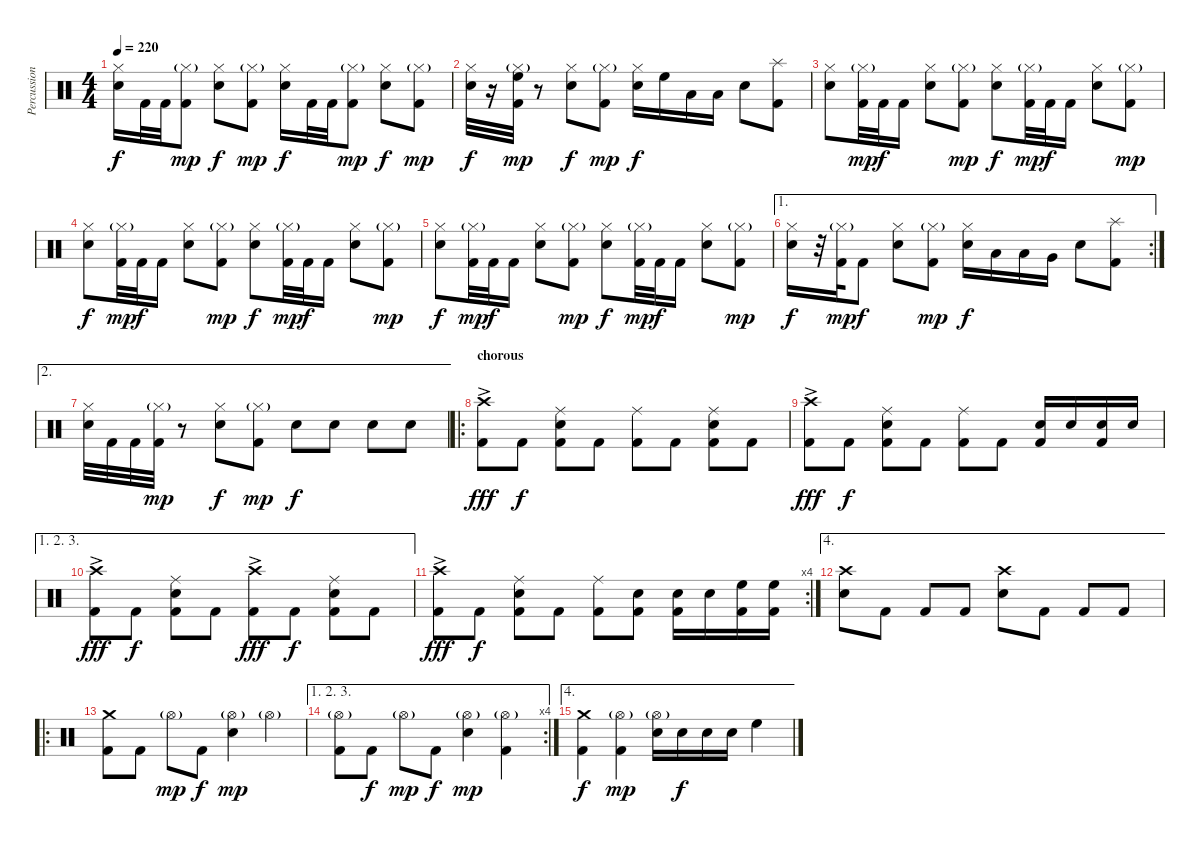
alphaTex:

\track ("Percussion" "Percussion") {instrument percussion}
\staff {score}
\articulation defaults
\ts (4 4)
\tempo 220
\clef neutral
\ks c
("Hi-Hat (closed)" "Electric Snare (hit)").16{dy f} "Kick (hit) 2".32 "Kick (hit) 2".32 ("Hi-Hat (closed)"{g} "Kick (hit) 2").8{dy mp} ("Hi-Hat (closed)" "Electric Snare (hit)").8{dy f} ("Hi-Hat (closed)"{g} "Kick (hit) 2").8{dy mp} ("Hi-Hat (closed)" "Electric Snare (hit)").16{dy f} "Kick (hit) 2".32 "Kick (hit) 2".32 ("Hi-Hat (closed)"{g} "Kick (hit) 2").8{dy mp} ("Hi-Hat (closed)" "Electric Snare (hit)").8{dy f} ("Hi-Hat (closed)"{g} "Kick (hit) 2").8{dy mp} |
("Hi-Hat (closed)" "Electric Snare (hit)").32{dy f} r.16 ("Hi-Hat (closed)"{g} "High Floor Tom (hit)" "Kick (hit) 2").32{dy mp} r.8 ("Hi-Hat (closed)" "Electric Snare (hit)").8{dy f} ("Hi-Hat (closed)"{g} "Kick (hit) 2").8{dy mp} ("Hi-Hat (closed)" "Electric Snare (hit)").16{dy f} "High Floor Tom (hit)".16 "Low Tom (hit)".16 "Low Tom (hit)".16 "Electric Snare (hit)".8 ("Splash (hit)" "Kick (hit) 2").8 |
("Hi-Hat (closed)" "Electric Snare (hit)").8 ("Hi-Hat (closed)"{g} "Kick (hit) 2").32{dy mp} "Kick (hit) 2".32{dy f} "Kick (hit) 2".16 ("Hi-Hat (closed)" "Electric Snare (hit)").8 ("Hi-Hat (closed)"{g} "Kick (hit) 2").8{dy mp} ("Hi-Hat (closed)" "Electric Snare (hit)").8{dy f} ("Hi-Hat (closed)"{g} "Kick (hit) 2").32{dy mp} "Kick (hit) 2".32{dy f} "Kick (hit) 2".16 ("Hi-Hat (closed)" "Electric Snare (hit)").8 ("Hi-Hat (closed)"{g} "Kick (hit) 2").8{dy mp} |
("Hi-Hat (closed)" "Electric Snare (hit)").8{dy f} ("Hi-Hat (closed)"{g} "Kick (hit) 2").32{dy mp} "Kick (hit) 2".32{dy f} "Kick (hit) 2".16 ("Hi-Hat (closed)" "Electric Snare (hit)").8 ("Hi-Hat (closed)"{g} "Kick (hit) 2").8{dy mp} ("Hi-Hat (closed)" "Electric Snare (hit)").8{dy f} ("Hi-Hat (closed)"{g} "Kick (hit) 2").32{dy mp} "Kick (hit) 2".32{dy f} "Kick (hit) 2".16 ("Hi-Hat (closed)" "Electric Snare (hit)").8 ("Hi-Hat (closed)"{g} "Kick (hit) 2").8{dy mp} |
("Hi-Hat (closed)" "Electric Snare (hit)").8{dy f} ("Hi-Hat (closed)"{g} "Kick (hit) 2").32{dy mp} "Kick (hit) 2".32{dy f} "Kick (hit) 2".16 ("Hi-Hat (closed)" "Electric Snare (hit)").8 ("Hi-Hat (closed)"{g} "Kick (hit) 2").8{dy mp} ("Hi-Hat (closed)" "Electric Snare (hit)").8{dy f} ("Hi-Hat (closed)"{g} "Kick (hit) 2").32{dy mp} "Kick (hit) 2".32{dy f} "Kick (hit) 2".16 ("Hi-Hat (closed)" "Electric Snare (hit)").8 ("Hi-Hat (closed)"{g} "Kick (hit) 2").8{dy mp} |
\ae 1
\rc 2
("Hi-Hat (closed)" "Electric Snare (hit)").16{dy f} r.32 ("Hi-Hat (closed)"{g} "Kick (hit) 2").32{dy mp} "Kick (hit) 2".8{dy f} ("Hi-Hat (closed)" "Electric Snare (hit)").8 ("Hi-Hat (closed)"{g} "Kick (hit) 2").8{dy mp} ("Hi-Hat (closed)" "Electric Snare (hit)").16{dy f} "Low Tom (hit)".16 "Low Tom (hit)".16 "Very Low Tom (hit)".16 "Electric Snare (hit)".8 ("Splash (hit)" "Kick (hit) 2").8 |
\ae 2
("Hi-Hat (closed)" "Electric Snare (hit)").32 "Kick (hit) 2".32 "Kick (hit) 2".32 ("Hi-Hat (closed)"{g} "Kick (hit) 2").32{dy mp} r.8 ("Hi-Hat (closed)" "Electric Snare (hit)").8{dy f} ("Hi-Hat (closed)"{g} "Kick (hit) 2").8{dy mp} "Electric Snare (hit)".8{dy f} "Electric Snare (hit)".8 "Electric Snare (hit)".8 "Electric Snare (hit)".8 |
\ro
\section ("" "chorous")
("Crash high (hit)"{ac} "Kick (hit) 2").8{dy fff} "Kick (hit) 2".8{dy f} ("Ride (middle)" "Electric Snare (hit)" "Kick (hit) 2").8 "Kick (hit) 2".8 ("Ride (middle)" "Kick (hit) 2").8 "Kick (hit) 2".8 ("Ride (middle)" "Electric Snare (hit)" "Kick (hit) 2").8 "Kick (hit) 2".8 |
("Crash high (hit)"{ac} "Kick (hit) 2").8{dy fff} "Kick (hit) 2".8{dy f} ("Ride (middle)" "Electric Snare (hit)" "Kick (hit) 2").8 "Kick (hit) 2".8 ("Ride (middle)" "Kick (hit) 2").8 "Kick (hit) 2".8 ("Electric Snare (hit)" "Kick (hit) 2").16 "Electric Snare (hit)".16 ("Electric Snare (hit)" "Kick (hit) 2").16 "Electric Snare (hit)".16 |
\ae (1 2 3)
("Crash high (hit)"{ac} "Kick (hit) 2").8{dy fff} "Kick (hit) 2".8{dy f} ("Ride (middle)" "Electric Snare (hit)" "Kick (hit) 2").8 "Kick (hit) 2".8 ("Crash high (hit)"{ac} "Kick (hit) 2").8{dy fff} "Kick (hit) 2".8{dy f} ("Ride (middle)" "Electric Snare (hit)" "Kick (hit) 2").8 "Kick (hit) 2".8 |
\rc 4
("Crash high (hit)"{ac} "Kick (hit) 2").8{dy fff} "Kick (hit) 2".8{dy f} ("Ride (middle)" "Electric Snare (hit)" "Kick (hit) 2").8 "Kick (hit) 2".8 ("Ride (middle)" "Kick (hit) 2").8 ("Electric Snare (hit)" "Kick (hit) 2").8 ("Electric Snare (hit)" "Kick (hit) 2").16 "Electric Snare (hit)".16 ("High Floor Tom (hit)" "Kick (hit) 2").16 ("High Floor Tom (hit)" "Kick (hit) 2").16 |
\ae 4
("Crash high (hit)" "Electric Snare (hit)").8 "Kick (hit) 2".8 "Kick (hit) 2".8 "Kick (hit) 2".8 ("Crash high (hit)" "Electric Snare (hit)").8 "Kick (hit) 2".8 "Kick (hit) 2".8 "Kick (hit) 2".8 |
\ro
("Crash medium (hit)" "Kick (hit) 2").8 "Kick (hit) 2".8 "Hi-Hat (open)"{g}.8{dy mp} "Kick (hit) 2".8{dy f} ("Hi-Hat (open)"{g} "Electric Snare (hit)").4{dy mp} "Hi-Hat (open)"{g}.4 |
\ae (1 2 3)
\rc 4
("Hi-Hat (open)"{g} "Kick (hit) 2").8 "Kick (hit) 2".8{dy f} "Hi-Hat (open)"{g}.8{dy mp} "Kick (hit) 2".8{dy f} ("Hi-Hat (open)"{g} "Electric Snare (hit)").4{dy mp} ("Hi-Hat (open)"{g} "Kick (hit) 2").4 |
\ae 4
("Crash medium (hit)" "Kick (hit) 2").4{dy f} ("Hi-Hat (open)"{g} "Kick (hit) 2").4{dy mp} ("Hi-Hat (open)"{g} "Electric Snare (hit)").16 "Electric Snare (hit)".16{dy f} "Electric Snare (hit)".16 "Electric Snare (hit)".16 "High Floor Tom (hit)".4
